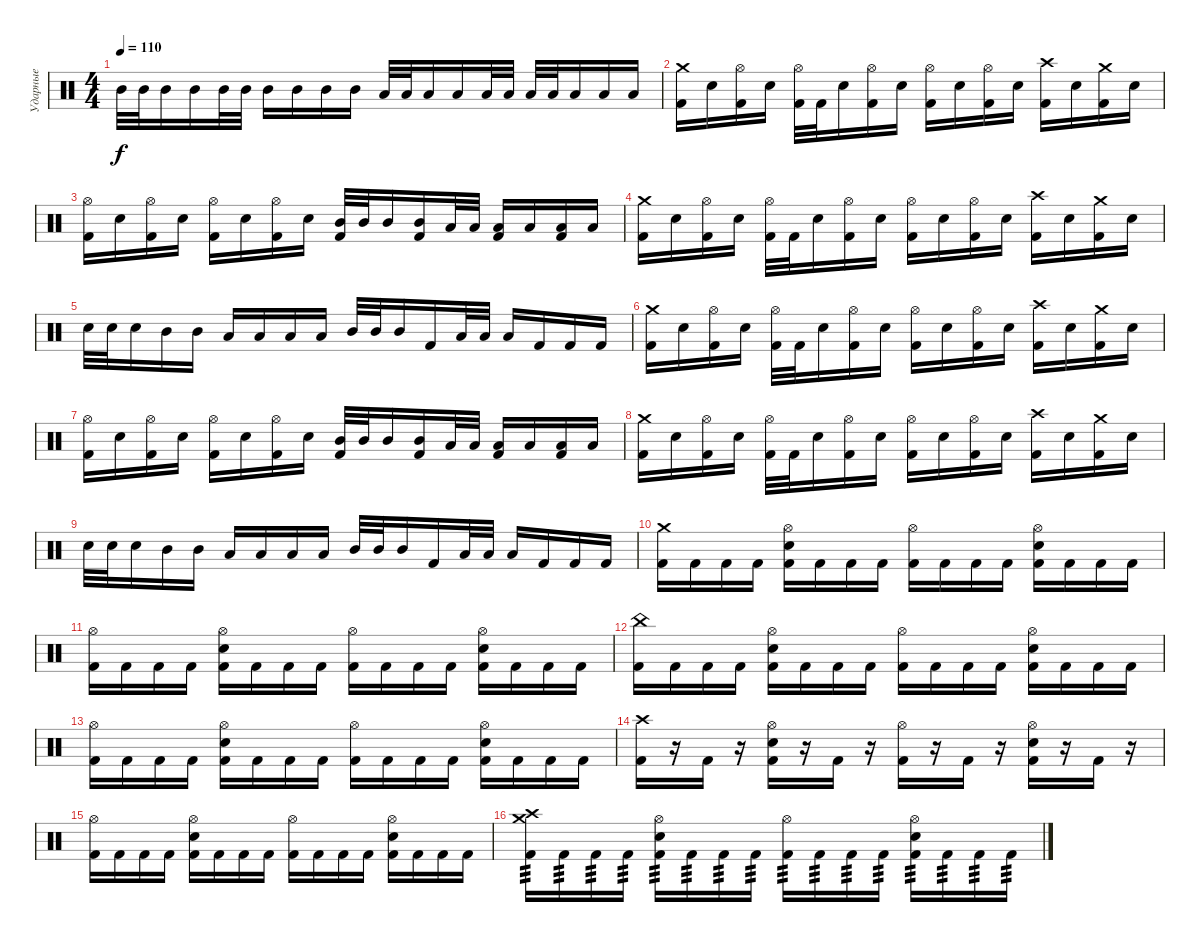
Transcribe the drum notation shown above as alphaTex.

\track ("Ударные" "Ударные") {instrument percussion}
\staff {score}
\articulation defaults
\ts (4 4)
\tempo 110
\clef neutral
\ks c "Mid Tom (hit)".32{dy f} "Mid Tom (hit)".32 "Mid Tom (hit)".16 "Mid Tom (hit)".16 "Mid Tom (hit)".32 "Mid Tom (hit)".32 "Mid Tom (hit)".16 "Mid Tom (hit)".16 "Mid Tom (hit)".16 "Mid Tom (hit)".16 "Low Floor Tom (hit)".32 "Low Floor Tom (hit)".32 "Low Floor Tom (hit)".16 "Low Floor Tom (hit)".16 "Low Floor Tom (hit)".32 "Low Floor Tom (hit)".32 "Low Floor Tom (hit)".32 "Low Floor Tom (hit)".32 "Low Floor Tom (hit)".16 "Low Floor Tom (hit)".16 "Low Floor Tom (hit)".16
|
("Crash medium (hit)" "Kick (hit) 2").16 "Snare (hit) 2".16 ("Hi-Hat (open)" "Kick (hit) 2").16 "Snare (hit) 2".16 ("Hi-Hat (open)" "Kick (hit) 2").32 "Kick (hit) 2".32 "Snare (hit) 2".16 ("Hi-Hat (open)" "Kick (hit) 2").16 "Snare (hit) 2".16 ("Hi-Hat (open)" "Kick (hit) 2").16 "Snare (hit) 2".16 ("Hi-Hat (open)" "Kick (hit) 2").16 "Snare (hit) 2".16 ("Crash high (hit)" "Kick (hit) 2").16 "Snare (hit) 2".16 ("Crash medium (hit)" "Kick (hit) 2").16 "Snare (hit) 2".16 |
("Hi-Hat (open)" "Kick (hit) 2").16 "Snare (hit) 2".16 ("Hi-Hat (open)" "Kick (hit) 2").16 "Snare (hit) 2".16 ("Hi-Hat (open)" "Kick (hit) 2").16 "Snare (hit) 2".16 ("Hi-Hat (open)" "Kick (hit) 2").16 "Snare (hit) 2".16 ("Mid Tom (hit)" "Kick (hit) 2").32 "Mid Tom (hit)".32 "Mid Tom (hit)".16 ("Mid Tom (hit)" "Kick (hit) 2").16 "Low Tom (hit)".32 "Low Tom (hit)".32 ("Low Tom (hit)" "Kick (hit) 2").16 "Low Tom (hit)".16 ("Low Floor Tom (hit)" "Kick (hit) 2").16 "Low Floor Tom (hit)".16 |
("Crash medium (hit)" "Kick (hit) 2").16 "Snare (hit) 2".16 ("Hi-Hat (open)" "Kick (hit) 2").16 "Snare (hit) 2".16 ("Hi-Hat (open)" "Kick (hit) 2").32 "Kick (hit) 2".32 "Snare (hit) 2".16 ("Hi-Hat (open)" "Kick (hit) 2").16 "Snare (hit) 2".16 ("Hi-Hat (open)" "Kick (hit) 2").16 "Snare (hit) 2".16 ("Hi-Hat (open)" "Kick (hit) 2").16 "Snare (hit) 2".16 ("Crash high (hit)" "Kick (hit) 2").16 "Snare (hit) 2".16 ("Crash medium (hit)" "Kick (hit) 2").16 "Snare (hit) 2".16 |
"Snare (hit) 2".32 "Snare (hit) 2".32 "Snare (hit) 2".16 "Mid Tom (hit)".16 "Mid Tom (hit)".16 "Low Tom (hit)".16 "Low Tom (hit)".16 "Low Floor Tom (hit)".16 "Low Floor Tom (hit)".16 "Mid Tom (hit)".32 "Mid Tom (hit)".32 "Mid Tom (hit)".16 "Kick (hit) 2".16 "Low Tom (hit)".32 "Low Tom (hit)".32 "Low Tom (hit)".16 "Kick (hit) 2".16 "Kick (hit) 2".16 "Kick (hit) 2".16 |
("Crash medium (hit)" "Kick (hit) 2").16 "Snare (hit) 2".16 ("Hi-Hat (open)" "Kick (hit) 2").16 "Snare (hit) 2".16 ("Hi-Hat (open)" "Kick (hit) 2").32 "Kick (hit) 2".32 "Snare (hit) 2".16 ("Hi-Hat (open)" "Kick (hit) 2").16 "Snare (hit) 2".16 ("Hi-Hat (open)" "Kick (hit) 2").16 "Snare (hit) 2".16 ("Hi-Hat (open)" "Kick (hit) 2").16 "Snare (hit) 2".16 ("Crash high (hit)" "Kick (hit) 2").16 "Snare (hit) 2".16 ("Crash medium (hit)" "Kick (hit) 2").16 "Snare (hit) 2".16 |
("Hi-Hat (open)" "Kick (hit) 2").16 "Snare (hit) 2".16 ("Hi-Hat (open)" "Kick (hit) 2").16 "Snare (hit) 2".16 ("Hi-Hat (open)" "Kick (hit) 2").16 "Snare (hit) 2".16 ("Hi-Hat (open)" "Kick (hit) 2").16 "Snare (hit) 2".16 ("Mid Tom (hit)" "Kick (hit) 2").32 "Mid Tom (hit)".32 "Mid Tom (hit)".16 ("Mid Tom (hit)" "Kick (hit) 2").16 "Low Tom (hit)".32 "Low Tom (hit)".32 ("Low Tom (hit)" "Kick (hit) 2").16 "Low Tom (hit)".16 ("Low Floor Tom (hit)" "Kick (hit) 2").16 "Low Floor Tom (hit)".16 |
("Crash medium (hit)" "Kick (hit) 2").16 "Snare (hit) 2".16 ("Hi-Hat (open)" "Kick (hit) 2").16 "Snare (hit) 2".16 ("Hi-Hat (open)" "Kick (hit) 2").32 "Kick (hit) 2".32 "Snare (hit) 2".16 ("Hi-Hat (open)" "Kick (hit) 2").16 "Snare (hit) 2".16 ("Hi-Hat (open)" "Kick (hit) 2").16 "Snare (hit) 2".16 ("Hi-Hat (open)" "Kick (hit) 2").16 "Snare (hit) 2".16 ("Crash high (hit)" "Kick (hit) 2").16 "Snare (hit) 2".16 ("Crash medium (hit)" "Kick (hit) 2").16 "Snare (hit) 2".16 |
"Snare (hit) 2".32 "Snare (hit) 2".32 "Snare (hit) 2".16 "Mid Tom (hit)".16 "Mid Tom (hit)".16 "Low Tom (hit)".16 "Low Tom (hit)".16 "Low Floor Tom (hit)".16 "Low Floor Tom (hit)".16 "Mid Tom (hit)".32 "Mid Tom (hit)".32 "Mid Tom (hit)".16 "Kick (hit) 2".16 "Low Tom (hit)".32 "Low Tom (hit)".32 "Low Tom (hit)".16 "Kick (hit) 2".16 "Kick (hit) 2".16 "Kick (hit) 2".16 |
("Crash medium (hit)" "Kick (hit) 2").16 "Kick (hit) 2".16 "Kick (hit) 2".16 "Kick (hit) 2".16 ("Hi-Hat (open)" "Snare (hit) 2" "Kick (hit) 2").16 "Kick (hit) 2".16 "Kick (hit) 2".16 "Kick (hit) 2".16 ("Hi-Hat (open)" "Kick (hit) 2").16 "Kick (hit) 2".16 "Kick (hit) 2".16 "Kick (hit) 2".16 ("Hi-Hat (open)" "Snare (hit) 2" "Kick (hit) 2").16 "Kick (hit) 2".16 "Kick (hit) 2".16 "Kick (hit) 2".16 |
("Hi-Hat (open)" "Kick (hit) 2").16 "Kick (hit) 2".16 "Kick (hit) 2".16 "Kick (hit) 2".16 ("Hi-Hat (open)" "Snare (hit) 2" "Kick (hit) 2").16 "Kick (hit) 2".16 "Kick (hit) 2".16 "Kick (hit) 2".16 ("Hi-Hat (open)" "Kick (hit) 2").16 "Kick (hit) 2".16 "Kick (hit) 2".16 "Kick (hit) 2".16 ("Hi-Hat (open)" "Snare (hit) 2" "Kick (hit) 2").16 "Kick (hit) 2".16 "Kick (hit) 2".16 "Kick (hit) 2".16 |
("China (hit)" "Kick (hit) 2").16 "Kick (hit) 2".16 "Kick (hit) 2".16 "Kick (hit) 2".16 ("Hi-Hat (open)" "Snare (hit) 2" "Kick (hit) 2").16 "Kick (hit) 2".16 "Kick (hit) 2".16 "Kick (hit) 2".16 ("Hi-Hat (open)" "Kick (hit) 2").16 "Kick (hit) 2".16 "Kick (hit) 2".16 "Kick (hit) 2".16 ("Hi-Hat (open)" "Snare (hit) 2" "Kick (hit) 2").16 "Kick (hit) 2".16 "Kick (hit) 2".16 "Kick (hit) 2".16 |
("Hi-Hat (open)" "Kick (hit) 2").16 "Kick (hit) 2".16 "Kick (hit) 2".16 "Kick (hit) 2".16 ("Hi-Hat (open)" "Snare (hit) 2" "Kick (hit) 2").16 "Kick (hit) 2".16 "Kick (hit) 2".16 "Kick (hit) 2".16 ("Hi-Hat (open)" "Kick (hit) 2").16 "Kick (hit) 2".16 "Kick (hit) 2".16 "Kick (hit) 2".16 ("Hi-Hat (open)" "Snare (hit) 2" "Kick (hit) 2").16 "Kick (hit) 2".16 "Kick (hit) 2".16 "Kick (hit) 2".16 |
("Crash high (hit)" "Kick (hit) 2").16 r.16 "Kick (hit) 2".16 r.16 ("Hi-Hat (open)" "Snare (hit) 2" "Kick (hit) 2").16 r.16 "Kick (hit) 2".16 r.16 ("Hi-Hat (open)" "Kick (hit) 2").16 r.16 "Kick (hit) 2".16 r.16 ("Hi-Hat (open)" "Snare (hit) 2" "Kick (hit) 2").16 r.16 "Kick (hit) 2".16 r.16 |
("Hi-Hat (open)" "Kick (hit) 2").16 "Kick (hit) 2".16 "Kick (hit) 2".16 "Kick (hit) 2".16 ("Hi-Hat (open)" "Snare (hit) 2" "Kick (hit) 2").16 "Kick (hit) 2".16 "Kick (hit) 2".16 "Kick (hit) 2".16 ("Hi-Hat (open)" "Kick (hit) 2").16 "Kick (hit) 2".16 "Kick (hit) 2".16 "Kick (hit) 2".16 ("Hi-Hat (open)" "Snare (hit) 2" "Kick (hit) 2").16 "Kick (hit) 2".16 "Kick (hit) 2".16 "Kick (hit) 2".16 |
("Crash high (hit)" "Crash medium (hit)" "Kick (hit) 2").16{tp 3} "Kick (hit) 2".16{tp 3} "Kick (hit) 2".16{tp 3} "Kick (hit) 2".16{tp 3} ("Hi-Hat (open)" "Snare (hit) 2" "Kick (hit) 2").16{tp 3} "Kick (hit) 2".16{tp 3} "Kick (hit) 2".16{tp 3} "Kick (hit) 2".16{tp 3} ("Hi-Hat (open)" "Kick (hit) 2").16{tp 3} "Kick (hit) 2".16{tp 3} "Kick (hit) 2".16{tp 3} "Kick (hit) 2".16{tp 3} ("Hi-Hat (open)" "Snare (hit) 2" "Kick (hit) 2").16{tp 3} "Kick (hit) 2".16{tp 3} "Kick (hit) 2".16{tp 3} "Kick (hit) 2".16{tp 3}
